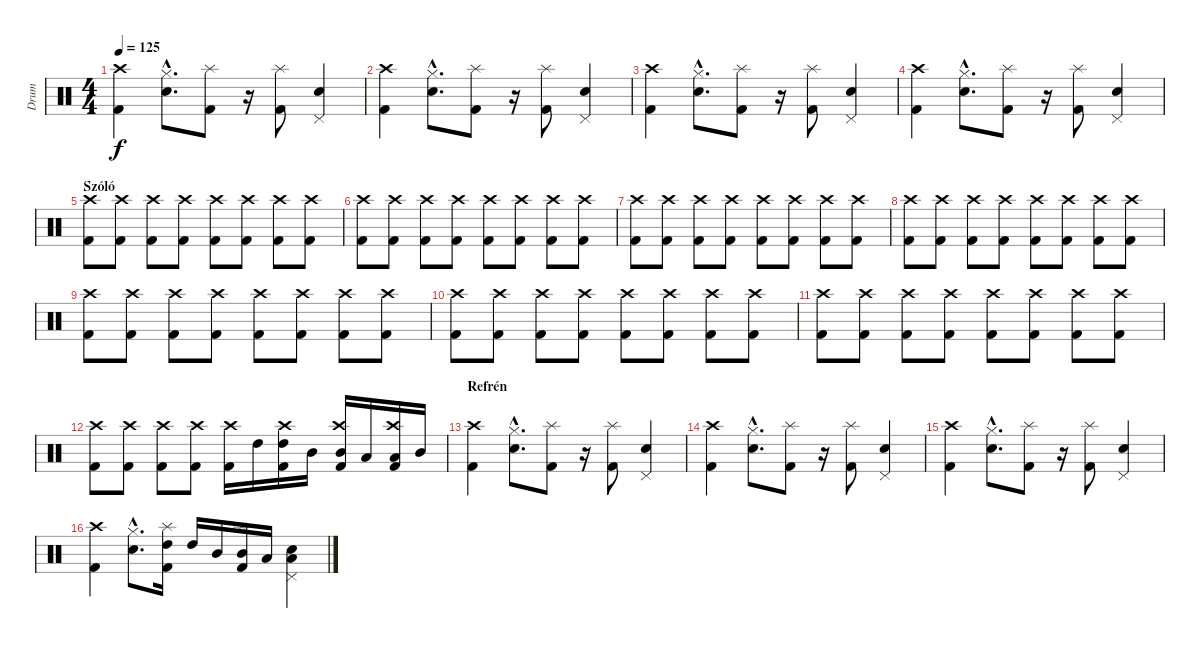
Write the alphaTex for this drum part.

\track ("Drum" "Drum") {instrument percussion}
\staff {score}
\articulation defaults
\ts (4 4)
\tempo 125
\clef neutral
\ks c
("Kick (hit) 2" "Crash high (hit)").4{dy f} ("Snare (hit) 2"{hac} "Hi-Hat (closed)"{hac}).8{d} ("Kick (hit) 2" "Splash (hit)").8 r.16 ("Kick (hit) 2" "Splash (hit)").8 ("Snare (hit) 2" "Pedal Hi-Hat (hit)").4 |
("Kick (hit) 2" "Crash high (hit)").4 ("Snare (hit) 2"{hac} "Hi-Hat (closed)"{hac}).8{d} ("Kick (hit) 2" "Splash (hit)").8 r.16 ("Kick (hit) 2" "Splash (hit)").8 ("Snare (hit) 2" "Pedal Hi-Hat (hit)").4 |
("Kick (hit) 2" "Crash high (hit)").4 ("Snare (hit) 2"{hac} "Hi-Hat (closed)"{hac}).8{d} ("Kick (hit) 2" "Splash (hit)").8 r.16 ("Kick (hit) 2" "Splash (hit)").8 ("Snare (hit) 2" "Pedal Hi-Hat (hit)").4 |
("Kick (hit) 2" "Crash high (hit)").4 ("Snare (hit) 2"{hac} "Hi-Hat (closed)"{hac}).8{d} ("Kick (hit) 2" "Splash (hit)").8 r.16 ("Kick (hit) 2" "Splash (hit)").8 ("Snare (hit) 2" "Pedal Hi-Hat (hit)").4 |
\section ("" "Szóló")
("Kick (hit) 2" "Crash high (hit)").8 ("Kick (hit) 2" "Crash high (hit)").8 ("Kick (hit) 2" "Crash high (hit)").8 ("Kick (hit) 2" "Crash high (hit)").8 ("Kick (hit) 2" "Crash high (hit)").8 ("Kick (hit) 2" "Crash high (hit)").8 ("Kick (hit) 2" "Crash high (hit)").8 ("Kick (hit) 2" "Crash high (hit)").8 |
("Kick (hit) 2" "Crash high (hit)").8 ("Kick (hit) 2" "Crash high (hit)").8 ("Kick (hit) 2" "Crash high (hit)").8 ("Kick (hit) 2" "Crash high (hit)").8 ("Kick (hit) 2" "Crash high (hit)").8 ("Kick (hit) 2" "Crash high (hit)").8 ("Kick (hit) 2" "Crash high (hit)").8 ("Kick (hit) 2" "Crash high (hit)").8 |
("Kick (hit) 2" "Crash high (hit)").8 ("Kick (hit) 2" "Crash high (hit)").8 ("Kick (hit) 2" "Crash high (hit)").8 ("Kick (hit) 2" "Crash high (hit)").8 ("Kick (hit) 2" "Crash high (hit)").8 ("Kick (hit) 2" "Crash high (hit)").8 ("Kick (hit) 2" "Crash high (hit)").8 ("Kick (hit) 2" "Crash high (hit)").8 |
("Kick (hit) 2" "Crash high (hit)").8 ("Kick (hit) 2" "Crash high (hit)").8 ("Kick (hit) 2" "Crash high (hit)").8 ("Kick (hit) 2" "Crash high (hit)").8 ("Kick (hit) 2" "Crash high (hit)").8 ("Kick (hit) 2" "Crash high (hit)").8 ("Kick (hit) 2" "Crash high (hit)").8 ("Kick (hit) 2" "Crash high (hit)").8 |
("Kick (hit) 2" "Crash high (hit)").8 ("Kick (hit) 2" "Crash high (hit)").8 ("Kick (hit) 2" "Crash high (hit)").8 ("Kick (hit) 2" "Crash high (hit)").8 ("Kick (hit) 2" "Crash high (hit)").8 ("Kick (hit) 2" "Crash high (hit)").8 ("Kick (hit) 2" "Crash high (hit)").8 ("Kick (hit) 2" "Crash high (hit)").8 |
("Kick (hit) 2" "Crash high (hit)").8 ("Kick (hit) 2" "Crash high (hit)").8 ("Kick (hit) 2" "Crash high (hit)").8 ("Kick (hit) 2" "Crash high (hit)").8 ("Kick (hit) 2" "Crash high (hit)").8 ("Kick (hit) 2" "Crash high (hit)").8 ("Kick (hit) 2" "Crash high (hit)").8 ("Kick (hit) 2" "Crash high (hit)").8 |
("Kick (hit) 2" "Crash high (hit)").8 ("Kick (hit) 2" "Crash high (hit)").8 ("Kick (hit) 2" "Crash high (hit)").8 ("Kick (hit) 2" "Crash high (hit)").8 ("Kick (hit) 2" "Crash high (hit)").8 ("Kick (hit) 2" "Crash high (hit)").8 ("Kick (hit) 2" "Crash high (hit)").8 ("Kick (hit) 2" "Crash high (hit)").8 |
("Kick (hit) 2" "Crash high (hit)").8 ("Kick (hit) 2" "Crash high (hit)").8 ("Kick (hit) 2" "Crash high (hit)").8 ("Kick (hit) 2" "Crash high (hit)").8 ("Kick (hit) 2" "Crash high (hit)").16 "High Tom (hit)".16 ("Kick (hit) 2" "Crash high (hit)" "High Tom (hit)").16 "Mid Tom (hit)".16 ("Kick (hit) 2" "Crash high (hit)" "Mid Tom (hit)").16 "Low Tom (hit)".16 ("Kick (hit) 2" "Crash high (hit)" "Low Tom (hit)").16 "Mid Tom (hit)".16 |
\section ("" "Refrén")
("Kick (hit) 2" "Crash high (hit)").4 ("Snare (hit) 2"{hac} "Hi-Hat (closed)"{hac}).8{d} ("Kick (hit) 2" "Splash (hit)").8 r.16 ("Kick (hit) 2" "Splash (hit)").8 ("Snare (hit) 2" "Pedal Hi-Hat (hit)").4 |
("Kick (hit) 2" "Crash high (hit)").4 ("Snare (hit) 2"{hac} "Hi-Hat (closed)"{hac}).8{d} ("Kick (hit) 2" "Splash (hit)").8 r.16 ("Kick (hit) 2" "Splash (hit)").8 ("Snare (hit) 2" "Pedal Hi-Hat (hit)").4 |
("Kick (hit) 2" "Crash high (hit)").4 ("Snare (hit) 2"{hac} "Hi-Hat (closed)"{hac}).8{d} ("Kick (hit) 2" "Splash (hit)").8 r.16 ("Kick (hit) 2" "Splash (hit)").8 ("Snare (hit) 2" "Pedal Hi-Hat (hit)").4 |
("Kick (hit) 2" "Crash high (hit)").4 ("Snare (hit) 2"{hac} "Hi-Hat (closed)"{hac}).8{d} ("Kick (hit) 2" "Splash (hit)" "High Tom (hit)").16 "High Tom (hit)".16 "Mid Tom (hit)".16 ("Kick (hit) 2" "Splash (hit)" "Mid Tom (hit)").16 "Low Tom (hit)".16 ("Snare (hit) 2" "Pedal Hi-Hat (hit)" "Low Tom (hit)").4
